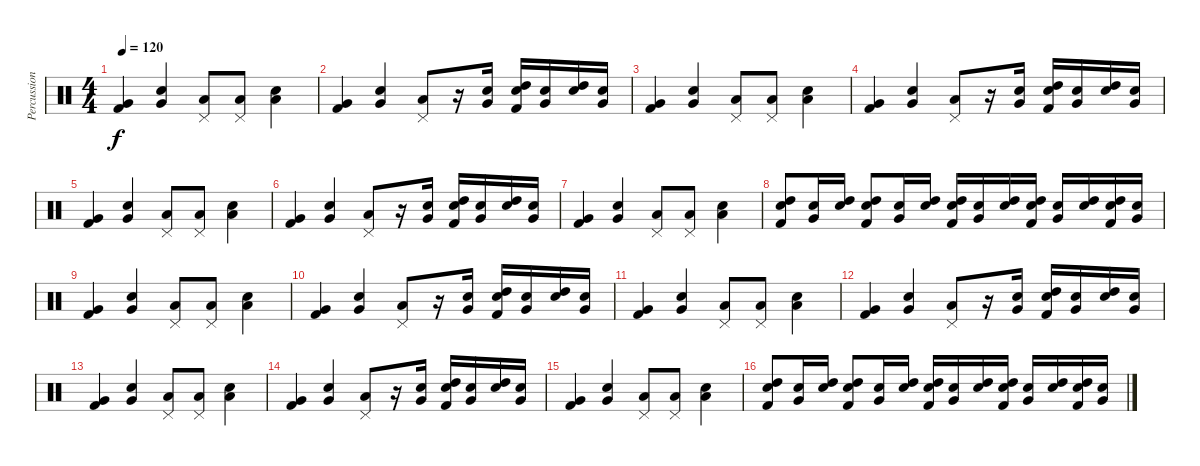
\track ("Percussion" "Percussion") {instrument percussion}
\staff {score}
\articulation defaults
\ts (4 4)
\tempo 120
\clef neutral
\ks c
("Very Low Tom (hit)" "Kick (hit) 2").4{dy f} ("Very Low Tom (hit)" "Snare (hit) 2").4 ("Pedal Hi-Hat (hit)" "Low Tom (hit)").8 ("Pedal Hi-Hat (hit)" "Low Tom (hit)").8 ("Low Tom (hit)" "Snare (hit) 2").4 |
("Very Low Tom (hit)" "Kick (hit) 2").4 ("Very Low Tom (hit)" "Snare (hit) 2").4 ("Pedal Hi-Hat (hit)" "Low Tom (hit)").8 r.16 ("Very Low Tom (hit)" "Snare (hit) 2").16 ("High Tom (hit)" "Snare (hit) 2" "Kick (hit) 2").16 ("Very Low Tom (hit)" "Snare (hit) 2").16 ("High Tom (hit)" "Snare (hit) 2").16 ("Very Low Tom (hit)" "Snare (hit) 2").16 |
("Very Low Tom (hit)" "Kick (hit) 2").4 ("Very Low Tom (hit)" "Snare (hit) 2").4 ("Pedal Hi-Hat (hit)" "Low Tom (hit)").8 ("Pedal Hi-Hat (hit)" "Low Tom (hit)").8 ("Low Tom (hit)" "Snare (hit) 2").4 |
("Very Low Tom (hit)" "Kick (hit) 2").4 ("Very Low Tom (hit)" "Snare (hit) 2").4 ("Pedal Hi-Hat (hit)" "Low Tom (hit)").8 r.16 ("Very Low Tom (hit)" "Snare (hit) 2").16 ("High Tom (hit)" "Snare (hit) 2" "Kick (hit) 2").16 ("Very Low Tom (hit)" "Snare (hit) 2").16 ("High Tom (hit)" "Snare (hit) 2").16 ("Very Low Tom (hit)" "Snare (hit) 2").16 |
("Very Low Tom (hit)" "Kick (hit) 2").4 ("Very Low Tom (hit)" "Snare (hit) 2").4 ("Pedal Hi-Hat (hit)" "Low Tom (hit)").8 ("Pedal Hi-Hat (hit)" "Low Tom (hit)").8 ("Low Tom (hit)" "Snare (hit) 2").4 |
("Very Low Tom (hit)" "Kick (hit) 2").4 ("Very Low Tom (hit)" "Snare (hit) 2").4 ("Pedal Hi-Hat (hit)" "Low Tom (hit)").8 r.16 ("Very Low Tom (hit)" "Snare (hit) 2").16 ("High Tom (hit)" "Snare (hit) 2" "Kick (hit) 2").16 ("Very Low Tom (hit)" "Snare (hit) 2").16 ("High Tom (hit)" "Snare (hit) 2").16 ("Very Low Tom (hit)" "Snare (hit) 2").16 |
("Very Low Tom (hit)" "Kick (hit) 2").4 ("Very Low Tom (hit)" "Snare (hit) 2").4 ("Pedal Hi-Hat (hit)" "Low Tom (hit)").8 ("Pedal Hi-Hat (hit)" "Low Tom (hit)").8 ("Low Tom (hit)" "Snare (hit) 2").4 |
("High Tom (hit)" "Snare (hit) 2" "Kick (hit) 2").8 ("Very Low Tom (hit)" "Snare (hit) 2").16 ("High Tom (hit)" "Snare (hit) 2").16 ("High Tom (hit)" "Snare (hit) 2" "Kick (hit) 2").8 ("Very Low Tom (hit)" "Snare (hit) 2").16 ("High Tom (hit)" "Snare (hit) 2").16 ("High Tom (hit)" "Snare (hit) 2" "Kick (hit) 2").16 ("Very Low Tom (hit)" "Snare (hit) 2").16 ("High Tom (hit)" "Snare (hit) 2").16 ("High Tom (hit)" "Snare (hit) 2" "Kick (hit) 2").16 ("Very Low Tom (hit)" "Snare (hit) 2").16 ("High Tom (hit)" "Snare (hit) 2").16 ("High Tom (hit)" "Snare (hit) 2" "Kick (hit) 2").16 ("Very Low Tom (hit)" "Snare (hit) 2").16 |
("Very Low Tom (hit)" "Kick (hit) 2").4 ("Very Low Tom (hit)" "Snare (hit) 2").4 ("Pedal Hi-Hat (hit)" "Low Tom (hit)").8 ("Pedal Hi-Hat (hit)" "Low Tom (hit)").8 ("Low Tom (hit)" "Snare (hit) 2").4 |
("Very Low Tom (hit)" "Kick (hit) 2").4 ("Very Low Tom (hit)" "Snare (hit) 2").4 ("Pedal Hi-Hat (hit)" "Low Tom (hit)").8 r.16 ("Very Low Tom (hit)" "Snare (hit) 2").16 ("High Tom (hit)" "Snare (hit) 2" "Kick (hit) 2").16 ("Very Low Tom (hit)" "Snare (hit) 2").16 ("High Tom (hit)" "Snare (hit) 2").16 ("Very Low Tom (hit)" "Snare (hit) 2").16 |
("Very Low Tom (hit)" "Kick (hit) 2").4 ("Very Low Tom (hit)" "Snare (hit) 2").4 ("Pedal Hi-Hat (hit)" "Low Tom (hit)").8 ("Pedal Hi-Hat (hit)" "Low Tom (hit)").8 ("Low Tom (hit)" "Snare (hit) 2").4 |
("Very Low Tom (hit)" "Kick (hit) 2").4 ("Very Low Tom (hit)" "Snare (hit) 2").4 ("Pedal Hi-Hat (hit)" "Low Tom (hit)").8 r.16 ("Very Low Tom (hit)" "Snare (hit) 2").16 ("High Tom (hit)" "Snare (hit) 2" "Kick (hit) 2").16 ("Very Low Tom (hit)" "Snare (hit) 2").16 ("High Tom (hit)" "Snare (hit) 2").16 ("Very Low Tom (hit)" "Snare (hit) 2").16 |
("Very Low Tom (hit)" "Kick (hit) 2").4 ("Very Low Tom (hit)" "Snare (hit) 2").4 ("Pedal Hi-Hat (hit)" "Low Tom (hit)").8 ("Pedal Hi-Hat (hit)" "Low Tom (hit)").8 ("Low Tom (hit)" "Snare (hit) 2").4 |
("Very Low Tom (hit)" "Kick (hit) 2").4 ("Very Low Tom (hit)" "Snare (hit) 2").4 ("Pedal Hi-Hat (hit)" "Low Tom (hit)").8 r.16 ("Very Low Tom (hit)" "Snare (hit) 2").16 ("High Tom (hit)" "Snare (hit) 2" "Kick (hit) 2").16 ("Very Low Tom (hit)" "Snare (hit) 2").16 ("High Tom (hit)" "Snare (hit) 2").16 ("Very Low Tom (hit)" "Snare (hit) 2").16 |
("Very Low Tom (hit)" "Kick (hit) 2").4 ("Very Low Tom (hit)" "Snare (hit) 2").4 ("Pedal Hi-Hat (hit)" "Low Tom (hit)").8 ("Pedal Hi-Hat (hit)" "Low Tom (hit)").8 ("Low Tom (hit)" "Snare (hit) 2").4 |
("High Tom (hit)" "Snare (hit) 2" "Kick (hit) 2").8 ("Very Low Tom (hit)" "Snare (hit) 2").16 ("High Tom (hit)" "Snare (hit) 2").16 ("High Tom (hit)" "Snare (hit) 2" "Kick (hit) 2").8 ("Very Low Tom (hit)" "Snare (hit) 2").16 ("High Tom (hit)" "Snare (hit) 2").16 ("High Tom (hit)" "Snare (hit) 2" "Kick (hit) 2").16 ("Very Low Tom (hit)" "Snare (hit) 2").16 ("High Tom (hit)" "Snare (hit) 2").16 ("High Tom (hit)" "Snare (hit) 2" "Kick (hit) 2").16 ("Very Low Tom (hit)" "Snare (hit) 2").16 ("High Tom (hit)" "Snare (hit) 2").16 ("High Tom (hit)" "Snare (hit) 2" "Kick (hit) 2").16 ("Very Low Tom (hit)" "Snare (hit) 2").16
